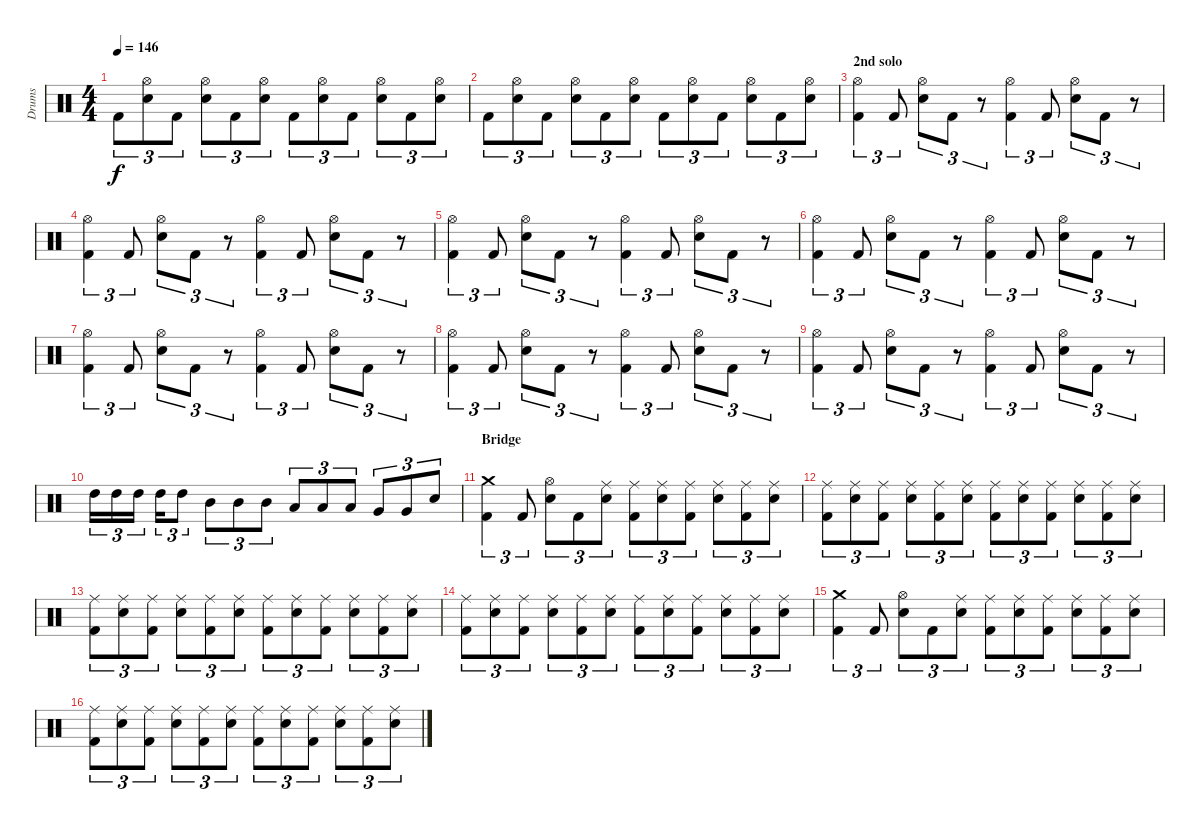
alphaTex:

\track ("Drums" "Drums") {instrument percussion}
\staff {score}
\articulation defaults
\ts (4 4)
\tempo 146
\clef neutral
\ks c "Kick (hit) 2".8{tu (3 2) dy f}
("Hi-Hat (open)" "Electric Snare (hit)").8{tu (3 2)} "Kick (hit) 2".8{tu (3 2)} ("Hi-Hat (open)" "Electric Snare (hit)").8{tu (3 2)} "Kick (hit) 2".8{tu (3 2)} ("Hi-Hat (open)" "Electric Snare (hit)").8{tu (3 2)} "Kick (hit) 2".8{tu (3 2)} ("Hi-Hat (open)" "Electric Snare (hit)").8{tu (3 2)} "Kick (hit) 2".8{tu (3 2)} ("Hi-Hat (open)" "Electric Snare (hit)").8{tu (3 2)} "Kick (hit) 2".8{tu (3 2)} ("Hi-Hat (open)" "Electric Snare (hit)").8{tu (3 2)} |
"Kick (hit) 2".8{tu (3 2)} ("Hi-Hat (open)" "Electric Snare (hit)").8{tu (3 2)} "Kick (hit) 2".8{tu (3 2)} ("Hi-Hat (open)" "Electric Snare (hit)").8{tu (3 2)} "Kick (hit) 2".8{tu (3 2)} ("Hi-Hat (open)" "Electric Snare (hit)").8{tu (3 2)} "Kick (hit) 2".8{tu (3 2)} ("Hi-Hat (open)" "Electric Snare (hit)").8{tu (3 2)} "Kick (hit) 2".8{tu (3 2)} ("Hi-Hat (open)" "Electric Snare (hit)").8{tu (3 2)} "Kick (hit) 2".8{tu (3 2)} ("Hi-Hat (open)" "Electric Snare (hit)").8{tu (3 2)} |
\section ("" "2nd solo")
("Hi-Hat (open)" "Kick (hit) 2").4{tu (3 2)} "Kick (hit) 2".8{tu (3 2)} ("Hi-Hat (open)" "Electric Snare (hit)").8{tu (3 2)} "Kick (hit) 2".8{tu (3 2)} r.8{tu (3 2)} ("Hi-Hat (open)" "Kick (hit) 2").4{tu (3 2)} "Kick (hit) 2".8{tu (3 2)} ("Hi-Hat (open)" "Electric Snare (hit)").8{tu (3 2)} "Kick (hit) 2".8{tu (3 2)} r.8{tu (3 2)} |
("Hi-Hat (open)" "Kick (hit) 2").4{tu (3 2)} "Kick (hit) 2".8{tu (3 2)} ("Hi-Hat (open)" "Electric Snare (hit)").8{tu (3 2)} "Kick (hit) 2".8{tu (3 2)} r.8{tu (3 2)} ("Hi-Hat (open)" "Kick (hit) 2").4{tu (3 2)} "Kick (hit) 2".8{tu (3 2)} ("Hi-Hat (open)" "Electric Snare (hit)").8{tu (3 2)} "Kick (hit) 2".8{tu (3 2)} r.8{tu (3 2)} |
("Hi-Hat (open)" "Kick (hit) 2").4{tu (3 2)} "Kick (hit) 2".8{tu (3 2)} ("Hi-Hat (open)" "Electric Snare (hit)").8{tu (3 2)} "Kick (hit) 2".8{tu (3 2)} r.8{tu (3 2)} ("Hi-Hat (open)" "Kick (hit) 2").4{tu (3 2)} "Kick (hit) 2".8{tu (3 2)} ("Hi-Hat (open)" "Electric Snare (hit)").8{tu (3 2)} "Kick (hit) 2".8{tu (3 2)} r.8{tu (3 2)} |
("Hi-Hat (open)" "Kick (hit) 2").4{tu (3 2)} "Kick (hit) 2".8{tu (3 2)} ("Hi-Hat (open)" "Electric Snare (hit)").8{tu (3 2)} "Kick (hit) 2".8{tu (3 2)} r.8{tu (3 2)} ("Hi-Hat (open)" "Kick (hit) 2").4{tu (3 2)} "Kick (hit) 2".8{tu (3 2)} ("Hi-Hat (open)" "Electric Snare (hit)").8{tu (3 2)} "Kick (hit) 2".8{tu (3 2)} r.8{tu (3 2)} |
("Hi-Hat (open)" "Kick (hit) 2").4{tu (3 2)} "Kick (hit) 2".8{tu (3 2)} ("Hi-Hat (open)" "Electric Snare (hit)").8{tu (3 2)} "Kick (hit) 2".8{tu (3 2)} r.8{tu (3 2)} ("Hi-Hat (open)" "Kick (hit) 2").4{tu (3 2)} "Kick (hit) 2".8{tu (3 2)} ("Hi-Hat (open)" "Electric Snare (hit)").8{tu (3 2)} "Kick (hit) 2".8{tu (3 2)} r.8{tu (3 2)} |
("Hi-Hat (open)" "Kick (hit) 2").4{tu (3 2)} "Kick (hit) 2".8{tu (3 2)} ("Hi-Hat (open)" "Electric Snare (hit)").8{tu (3 2)} "Kick (hit) 2".8{tu (3 2)} r.8{tu (3 2)} ("Hi-Hat (open)" "Kick (hit) 2").4{tu (3 2)} "Kick (hit) 2".8{tu (3 2)} ("Hi-Hat (open)" "Electric Snare (hit)").8{tu (3 2)} "Kick (hit) 2".8{tu (3 2)} r.8{tu (3 2)} |
("Hi-Hat (open)" "Kick (hit) 2").4{tu (3 2)} "Kick (hit) 2".8{tu (3 2)} ("Hi-Hat (open)" "Electric Snare (hit)").8{tu (3 2)} "Kick (hit) 2".8{tu (3 2)} r.8{tu (3 2)} ("Hi-Hat (open)" "Kick (hit) 2").4{tu (3 2)} "Kick (hit) 2".8{tu (3 2)} ("Hi-Hat (open)" "Electric Snare (hit)").8{tu (3 2)} "Kick (hit) 2".8{tu (3 2)} r.8{tu (3 2)} |
"High Tom (hit)".16{tu (3 2)} "High Tom (hit)".16{tu (3 2)} "High Tom (hit)".16{tu (3 2)} "High Tom (hit)".16{tu (3 2)} "High Tom (hit)".8{tu (3 2)} "Mid Tom (hit)".8{tu (3 2)} "Mid Tom (hit)".8{tu (3 2)} "Mid Tom (hit)".8{tu (3 2)} "Low Tom (hit)".8{tu (3 2)} "Low Tom (hit)".8{tu (3 2)} "Low Tom (hit)".8{tu (3 2)} "Very Low Tom (hit)".8{tu (3 2)} "Very Low Tom (hit)".8{tu (3 2)} "Electric Snare (hit)".8{tu (3 2)} |
\section ("" "Bridge")
("Crash medium (hit)" "Kick (hit) 2").4{tu (3 2)} "Kick (hit) 2".8{tu (3 2)} ("Hi-Hat (open)" "Electric Snare (hit)").8{tu (3 2)} "Kick (hit) 2".8{tu (3 2)} ("Ride (middle)" "Electric Snare (hit)").8{tu (3 2)} ("Ride (middle)" "Kick (hit) 2").8{tu (3 2)} ("Ride (middle)" "Electric Snare (hit)").8{tu (3 2)} ("Ride (middle)" "Kick (hit) 2").8{tu (3 2)} ("Ride (middle)" "Electric Snare (hit)").8{tu (3 2)} ("Ride (middle)" "Kick (hit) 2").8{tu (3 2)} ("Ride (middle)" "Electric Snare (hit)").8{tu (3 2)} |
("Ride (middle)" "Kick (hit) 2").8{tu (3 2)} ("Ride (middle)" "Electric Snare (hit)").8{tu (3 2)} ("Ride (middle)" "Kick (hit) 2").8{tu (3 2)} ("Ride (middle)" "Electric Snare (hit)").8{tu (3 2)} ("Ride (middle)" "Kick (hit) 2").8{tu (3 2)} ("Ride (middle)" "Electric Snare (hit)").8{tu (3 2)} ("Ride (middle)" "Kick (hit) 2").8{tu (3 2)} ("Ride (middle)" "Electric Snare (hit)").8{tu (3 2)} ("Ride (middle)" "Kick (hit) 2").8{tu (3 2)} ("Ride (middle)" "Electric Snare (hit)").8{tu (3 2)} ("Ride (middle)" "Kick (hit) 2").8{tu (3 2)} ("Ride (middle)" "Electric Snare (hit)").8{tu (3 2)} |
("Ride (middle)" "Kick (hit) 2").8{tu (3 2)} ("Ride (middle)" "Electric Snare (hit)").8{tu (3 2)} ("Ride (middle)" "Kick (hit) 2").8{tu (3 2)} ("Ride (middle)" "Electric Snare (hit)").8{tu (3 2)} ("Ride (middle)" "Kick (hit) 2").8{tu (3 2)} ("Ride (middle)" "Electric Snare (hit)").8{tu (3 2)} ("Ride (middle)" "Kick (hit) 2").8{tu (3 2)} ("Ride (middle)" "Electric Snare (hit)").8{tu (3 2)} ("Ride (middle)" "Kick (hit) 2").8{tu (3 2)} ("Ride (middle)" "Electric Snare (hit)").8{tu (3 2)} ("Ride (middle)" "Kick (hit) 2").8{tu (3 2)} ("Ride (middle)" "Electric Snare (hit)").8{tu (3 2)} |
("Ride (middle)" "Kick (hit) 2").8{tu (3 2)} ("Ride (middle)" "Electric Snare (hit)").8{tu (3 2)} ("Ride (middle)" "Kick (hit) 2").8{tu (3 2)} ("Ride (middle)" "Electric Snare (hit)").8{tu (3 2)} ("Ride (middle)" "Kick (hit) 2").8{tu (3 2)} ("Ride (middle)" "Electric Snare (hit)").8{tu (3 2)} ("Ride (middle)" "Kick (hit) 2").8{tu (3 2)} ("Ride (middle)" "Electric Snare (hit)").8{tu (3 2)} ("Ride (middle)" "Kick (hit) 2").8{tu (3 2)} ("Ride (middle)" "Electric Snare (hit)").8{tu (3 2)} ("Ride (middle)" "Kick (hit) 2").8{tu (3 2)} ("Ride (middle)" "Electric Snare (hit)").8{tu (3 2)} |
("Crash medium (hit)" "Kick (hit) 2").4{tu (3 2)} "Kick (hit) 2".8{tu (3 2)} ("Hi-Hat (open)" "Electric Snare (hit)").8{tu (3 2)} "Kick (hit) 2".8{tu (3 2)} ("Ride (middle)" "Electric Snare (hit)").8{tu (3 2)} ("Ride (middle)" "Kick (hit) 2").8{tu (3 2)} ("Ride (middle)" "Electric Snare (hit)").8{tu (3 2)} ("Ride (middle)" "Kick (hit) 2").8{tu (3 2)} ("Ride (middle)" "Electric Snare (hit)").8{tu (3 2)} ("Ride (middle)" "Kick (hit) 2").8{tu (3 2)} ("Ride (middle)" "Electric Snare (hit)").8{tu (3 2)} |
("Ride (middle)" "Kick (hit) 2").8{tu (3 2)} ("Ride (middle)" "Electric Snare (hit)").8{tu (3 2)} ("Ride (middle)" "Kick (hit) 2").8{tu (3 2)} ("Ride (middle)" "Electric Snare (hit)").8{tu (3 2)} ("Ride (middle)" "Kick (hit) 2").8{tu (3 2)} ("Ride (middle)" "Electric Snare (hit)").8{tu (3 2)} ("Ride (middle)" "Kick (hit) 2").8{tu (3 2)} ("Ride (middle)" "Electric Snare (hit)").8{tu (3 2)} ("Ride (middle)" "Kick (hit) 2").8{tu (3 2)} ("Ride (middle)" "Electric Snare (hit)").8{tu (3 2)} ("Ride (middle)" "Kick (hit) 2").8{tu (3 2)} ("Ride (middle)" "Electric Snare (hit)").8{tu (3 2)}
